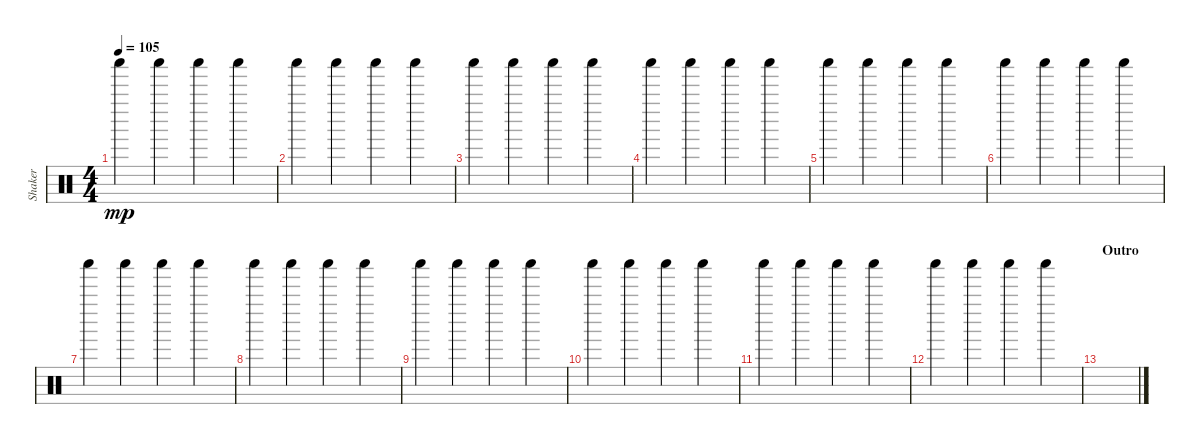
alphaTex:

\track ("Shaker" "Shaker") {instrument percussion}
\staff {score}
\articulation defaults
\ts (4 4)
\tempo 105
\clef neutral
\ks c "Shaker (hit)".4{dy mp} "Shaker (hit)".4 "Shaker (hit)".4 "Shaker (hit)".4
|
"Shaker (hit)".4 "Shaker (hit)".4 "Shaker (hit)".4 "Shaker (hit)".4 |
"Shaker (hit)".4 "Shaker (hit)".4 "Shaker (hit)".4 "Shaker (hit)".4 |
"Shaker (hit)".4 "Shaker (hit)".4 "Shaker (hit)".4 "Shaker (hit)".4 |
"Shaker (hit)".4 "Shaker (hit)".4 "Shaker (hit)".4 "Shaker (hit)".4 |
"Shaker (hit)".4 "Shaker (hit)".4 "Shaker (hit)".4 "Shaker (hit)".4 |
"Shaker (hit)".4 "Shaker (hit)".4 "Shaker (hit)".4 "Shaker (hit)".4 |
"Shaker (hit)".4 "Shaker (hit)".4 "Shaker (hit)".4 "Shaker (hit)".4 |
"Shaker (hit)".4 "Shaker (hit)".4 "Shaker (hit)".4 "Shaker (hit)".4 |
"Shaker (hit)".4 "Shaker (hit)".4 "Shaker (hit)".4 "Shaker (hit)".4 |
"Shaker (hit)".4 "Shaker (hit)".4 "Shaker (hit)".4 "Shaker (hit)".4 |
"Shaker (hit)".4 "Shaker (hit)".4 "Shaker (hit)".4 "Shaker (hit)".4 |
\section ("" "Outro")
